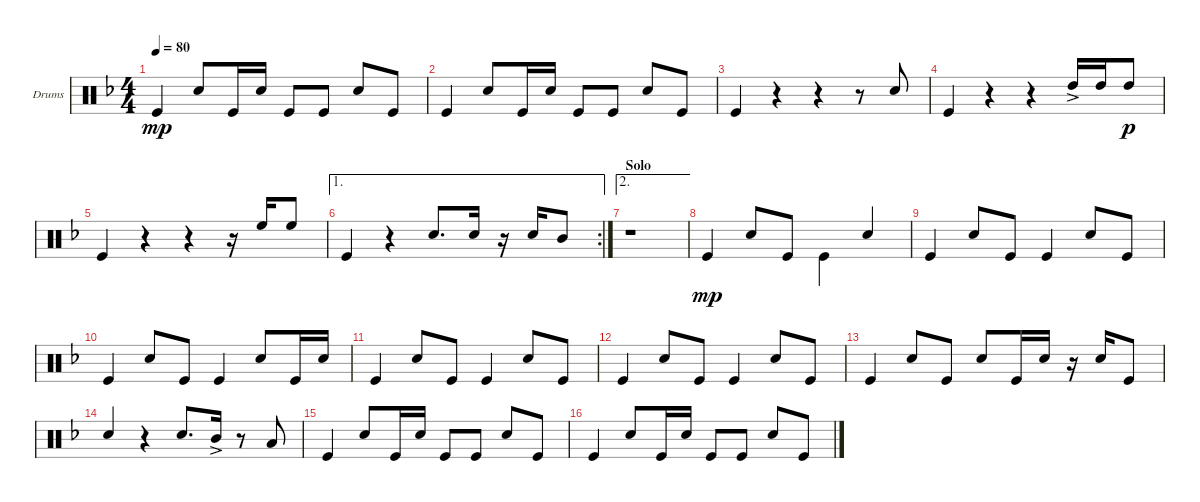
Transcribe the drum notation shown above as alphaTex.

\defaultSystemsLayout 4
\bracketExtendMode groupsimilarinstruments
\firstSystemTrackNameOrientation horizontal
\otherSystemsTrackNameOrientation horizontal
\track ("Drumkit" "Drums") {instrument percussion}
\staff {score}
\articulation defaults
\ts (4 4)
\tempo 80
\clef neutral
\scale
0.333333
\ks f "Kick (hit)".4{dy mp} "Snare (hit) 2".8 "Kick (hit)".16 "Snare (hit) 2".16 "Kick (hit)".8 "Kick (hit)".8 "Snare (hit) 2".8 "Kick (hit)".8
|
\scale
0.333333 "Kick (hit)".4 "Snare (hit) 2".8 "Kick (hit)".16 "Snare (hit) 2".16 "Kick (hit)".8 "Kick (hit)".8 "Snare (hit) 2".8 "Kick (hit)".8 |
\scale
0.333333 "Kick (hit)".4 r.4 r.4 r.8 "Snare (hit) 2".8{beam invert} |
\scale
0.333333 "Kick (hit)".4 r.4 r.4 "High Tom (hit)"{ac}.16{beam invert} "High Tom (hit)".16 "High Tom (hit)".8{dy p} |
\scale
0.333333 "Kick (hit)".4 r.4 r.4 r.16 "High Floor Tom (hit)".16{beam invert} "High Floor Tom (hit)".8 |
\ae 1
\rc 2 "Kick (hit)".4
r.4 "Snare (hit) 2".8{d beam invert} "Snare (hit) 2".16 r.16 "Snare (hit) 2".16{beam invert} "Mid Tom (hit)".8 |
\ae 2
\section ("" "Solo")
r.1 |
"Kick (hit)".4{dy mp} "Snare (hit) 2".8 "Kick (hit)".8 "Kick (hit)".4 "Snare (hit) 2".4{beam invert} |
"Kick (hit)".4 "Snare (hit) 2".8 "Kick (hit)".8 "Kick (hit)".4 "Snare (hit) 2".8 "Kick (hit)".8 |
"Kick (hit)".4 "Snare (hit) 2".8 "Kick (hit)".8 "Kick (hit)".4 "Snare (hit) 2".8 "Kick (hit)".16 "Snare (hit) 2".16 |
"Kick (hit)".4 "Snare (hit) 2".8 "Kick (hit)".8 "Kick (hit)".4 "Snare (hit) 2".8 "Kick (hit)".8 |
"Kick (hit)".4 "Snare (hit) 2".8 "Kick (hit)".8 "Kick (hit)".4 "Snare (hit) 2".8 "Kick (hit)".8 |
"Kick (hit)".4 "Snare (hit) 2".8 "Kick (hit)".8 "Snare (hit) 2".8 "Kick (hit)".16 "Snare (hit) 2".16 r.16 "Snare (hit) 2".16 "Kick (hit)".8 |
"Snare (hit) 2".4{beam invert} r.4 "Snare (hit) 2".8{d beam invert} "Mid Tom (hit)"{ac}.16 r.8 "Low Tom (hit)".8 |
"Kick (hit)".4 "Snare (hit) 2".8 "Kick (hit)".16 "Snare (hit) 2".16 "Kick (hit)".8 "Kick (hit)".8 "Snare (hit) 2".8 "Kick (hit)".8 |
"Kick (hit)".4 "Snare (hit) 2".8 "Kick (hit)".16 "Snare (hit) 2".16 "Kick (hit)".8 "Kick (hit)".8 "Snare (hit) 2".8 "Kick (hit)".8
